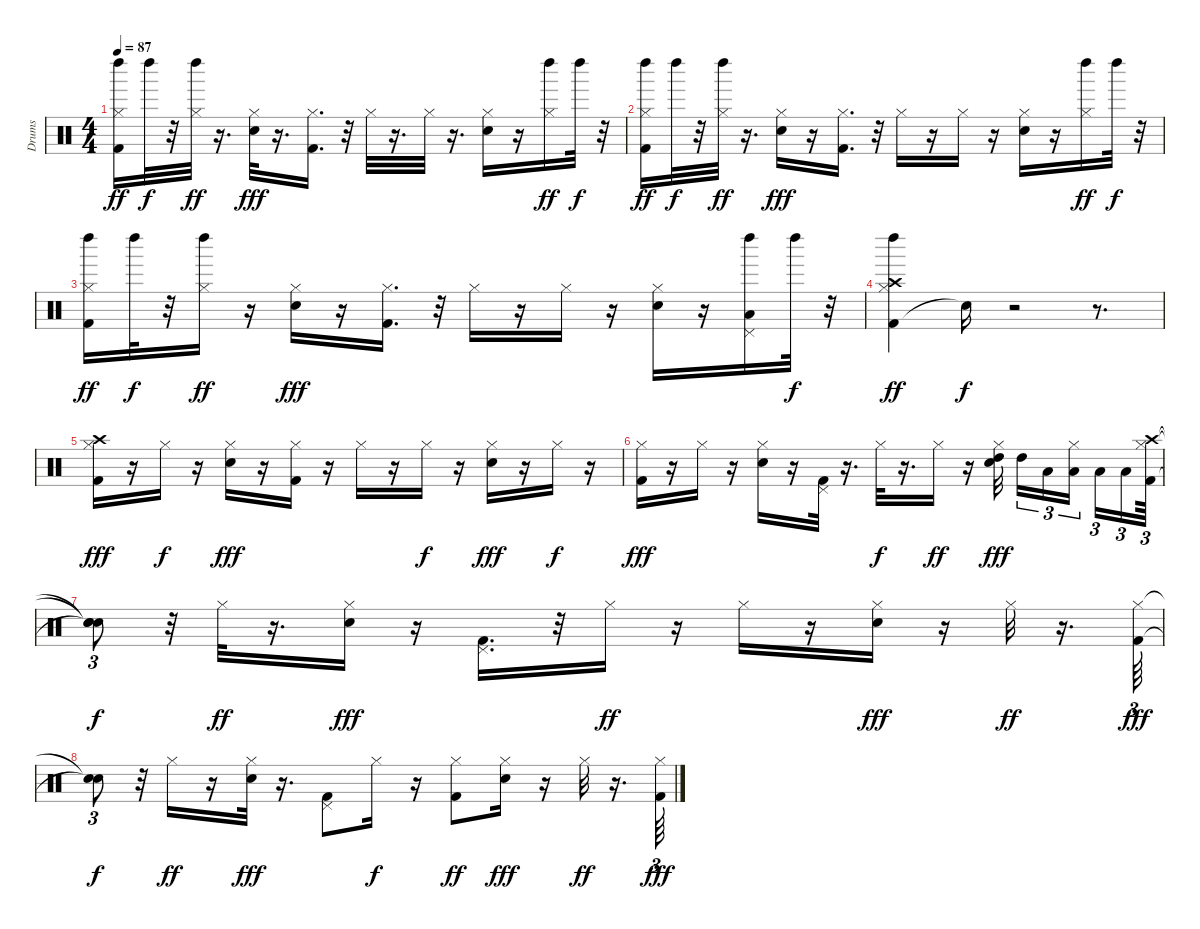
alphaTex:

\track ("Drums   " "Drums   ") {instrument percussion}
\staff {score}
\articulation defaults
\ts (4 4)
\tempo 87
\clef neutral
\ks c
("Kick (hit) 2" "Hi-Hat (closed)" "Left Maraca (hit)").16{dy ff} "Left Maraca (hit)".32{dy f} r.32 ("Hi-Hat (closed)" "Left Maraca (hit)").32{dy ff} r.16{d} ("Hi-Hat (closed)" "Snare (hit) 2").32{dy fff} r.16{d} ("Kick (hit) 2" "Hi-Hat (closed)").16{d} r.32 "Hi-Hat (closed)".32 r.16{d} "Hi-Hat (closed)".32 r.16{d} ("Hi-Hat (closed)" "Snare (hit) 2").16 r.16 ("Hi-Hat (closed)" "Left Maraca (hit)").16{dy ff} "Left Maraca (hit)".32{dy f} r.32 |
("Kick (hit) 2" "Hi-Hat (closed)" "Left Maraca (hit)").16{dy ff} "Left Maraca (hit)".32{dy f} r.32 ("Hi-Hat (closed)" "Left Maraca (hit)").32{dy ff} r.16{d} ("Hi-Hat (closed)" "Snare (hit) 2").16{dy fff} r.16 ("Kick (hit) 2" "Hi-Hat (closed)").16{d} r.32 "Hi-Hat (closed)".16 r.16 "Hi-Hat (closed)".16 r.16 ("Hi-Hat (closed)" "Snare (hit) 2").16 r.16 ("Hi-Hat (closed)" "Left Maraca (hit)").16{dy ff} "Left Maraca (hit)".32{dy f} r.32 |
("Kick (hit) 2" "Hi-Hat (closed)" "Left Maraca (hit)").16{dy ff} "Left Maraca (hit)".32{dy f} r.32 ("Hi-Hat (closed)" "Left Maraca (hit)").16{dy ff} r.16 ("Hi-Hat (closed)" "Snare (hit) 2").16{dy fff} r.16 ("Kick (hit) 2" "Hi-Hat (closed)").16{d} r.32 "Hi-Hat (closed)".16 r.16 "Hi-Hat (closed)".16 r.16 ("Hi-Hat (closed)" "Snare (hit) 2").16 r.16 ("Pedal Hi-Hat (hit)" "Low Floor Tom (hit)" "Left Maraca (hit)").16 "Left Maraca (hit)".32{dy f} r.32 |
("Kick (hit) 2" "Hi-Hat (closed)" "Crash high (hit)" "Left Maraca (hit)").4{dy ff} "Snare (hit)"{t}.16{dy f} r.2 r.8{d} |
("Kick (hit) 2" "Hi-Hat (closed)" "Crash high (hit)").16{dy fff} r.16 "Hi-Hat (closed)".16{dy f} r.16 ("Hi-Hat (closed)" "Snare (hit) 2").16{dy fff} r.16 ("Kick (hit) 2" "Hi-Hat (closed)").16 r.16 "Hi-Hat (closed)".16 r.16 "Hi-Hat (closed)".16{dy f} r.16 ("Hi-Hat (closed)" "Snare (hit) 2").16{dy fff} r.16 "Hi-Hat (closed)".16{dy f} r.16 |
("Kick (hit) 2" "Hi-Hat (closed)").16{dy fff} r.16 "Hi-Hat (closed)".16 r.16 ("Hi-Hat (closed)" "Snare (hit) 2").16 r.16 ("Kick (hit) 2" "Pedal Hi-Hat (hit)").32 r.16{d} "Hi-Hat (closed)".32{dy f} r.16{d} "Hi-Hat (closed)".16{dy ff} r.16 ("Hi-Hat (closed)" "Snare (hit) 2" "High Tom (hit)").32{dy fff beam splitsecondary} "High Tom (hit)".16{tu (3 2)} "Low Tom (hit)".16{tu (3 2)} ("Hi-Hat (closed)" "Low Tom (hit)").16{tu (3 2) beam splitsecondary} "Low Floor Tom (hit)".16{tu (3 2)} "Low Floor Tom (hit)".16{tu (3 2)} ("Kick (hit) 2" "Hi-Hat (closed)" "Crash high (hit)").64{tu (3 2)} |
("Snare (hit)"{t} "Snare (hit)"{t} "Snare (hit)"{t}).8{tu (3 2) dy f} r.32 "Hi-Hat (closed)".32{dy ff} r.16{d} ("Hi-Hat (closed)" "Snare (hit) 2").16{dy fff} r.16 ("Kick (hit) 2" "Pedal Hi-Hat (hit)").16{d} r.32 "Hi-Hat (closed)".16{dy ff} r.16 "Hi-Hat (closed)".16 r.16 ("Hi-Hat (closed)" "Snare (hit) 2").16{dy fff} r.16 "Hi-Hat (closed)".32{dy ff} r.16{d} ("Kick (hit) 2" "Hi-Hat (closed)").64{tu (3 2) dy fff} |
("Snare (hit)"{t} "Snare (hit)"{t}).8{tu (3 2) dy f} r.32 "Hi-Hat (closed)".16{dy ff} r.16 ("Hi-Hat (closed)" "Snare (hit) 2").32{dy fff} r.16{d} ("Kick (hit) 2" "Pedal Hi-Hat (hit)").8 "Hi-Hat (closed)".16{dy f} r.16 ("Kick (hit) 2" "Hi-Hat (closed)").8{dy ff} ("Hi-Hat (closed)" "Snare (hit) 2").16{dy fff} r.16 "Hi-Hat (closed)".32{dy ff} r.16{d} ("Kick (hit) 2" "Hi-Hat (closed)").64{tu (3 2) dy fff}
